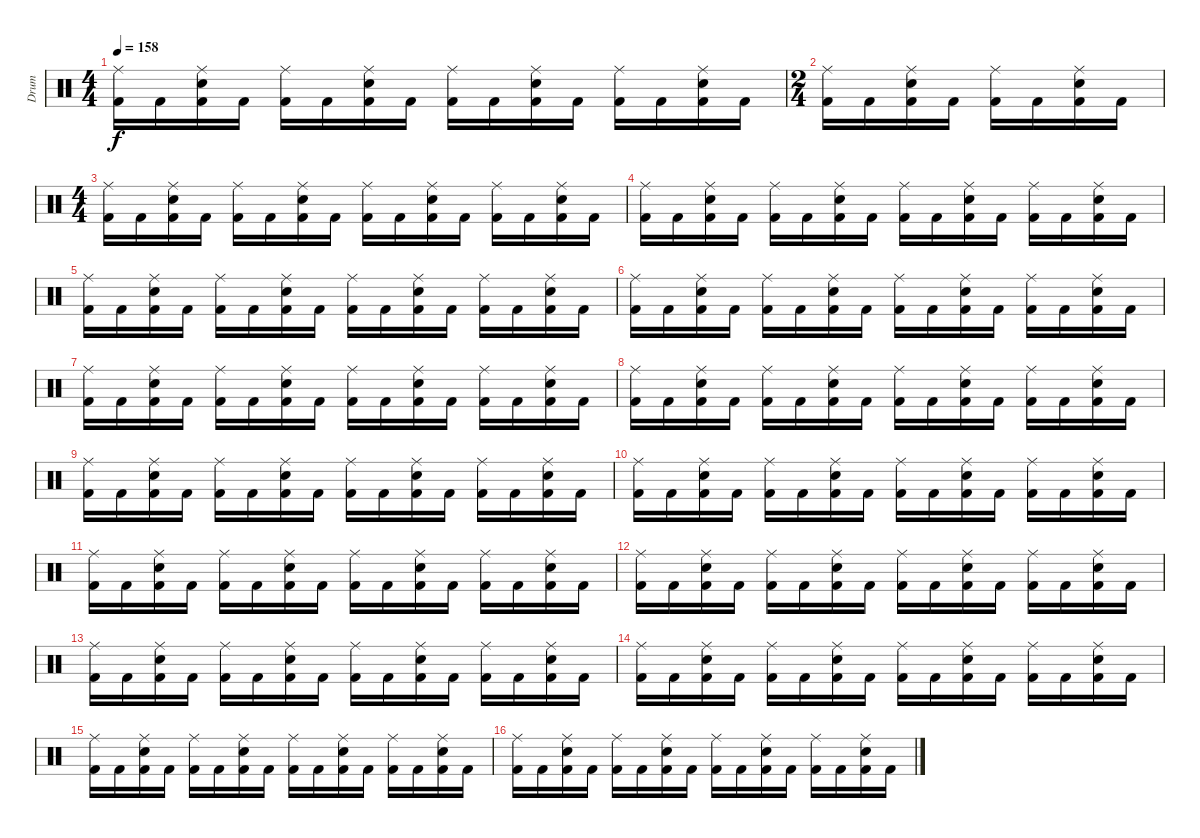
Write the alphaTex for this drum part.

\track ("Drum" "Drum") {instrument percussion}
\staff {score}
\articulation defaults
\ts (4 4)
\tempo 158
\clef neutral
\ks c
("Kick (hit) 2" "Ride (middle)").16{dy f} "Kick (hit) 2".16 ("Electric Snare (hit)" "Kick (hit) 2" "Ride (middle)").16 "Kick (hit) 2".16 ("Kick (hit) 2" "Ride (middle)").16 "Kick (hit) 2".16 ("Electric Snare (hit)" "Kick (hit) 2" "Ride (middle)").16 "Kick (hit) 2".16 ("Kick (hit) 2" "Ride (middle)").16 "Kick (hit) 2".16 ("Electric Snare (hit)" "Kick (hit) 2" "Ride (middle)").16 "Kick (hit) 2".16 ("Kick (hit) 2" "Ride (middle)").16 "Kick (hit) 2".16 ("Electric Snare (hit)" "Kick (hit) 2" "Ride (middle)").16 "Kick (hit) 2".16 |
\ts (2 4)
("Kick (hit) 2" "Ride (middle)").16 "Kick (hit) 2".16 ("Electric Snare (hit)" "Kick (hit) 2" "Ride (middle)").16 "Kick (hit) 2".16 ("Kick (hit) 2" "Ride (middle)").16 "Kick (hit) 2".16 ("Electric Snare (hit)" "Kick (hit) 2" "Ride (middle)").16 "Kick (hit) 2".16 |
\ts (4 4)
("Kick (hit) 2" "Ride (middle)").16 "Kick (hit) 2".16 ("Electric Snare (hit)" "Kick (hit) 2" "Ride (middle)").16 "Kick (hit) 2".16 ("Kick (hit) 2" "Ride (middle)").16 "Kick (hit) 2".16 ("Electric Snare (hit)" "Kick (hit) 2" "Ride (middle)").16 "Kick (hit) 2".16 ("Kick (hit) 2" "Ride (middle)").16 "Kick (hit) 2".16 ("Electric Snare (hit)" "Kick (hit) 2" "Ride (middle)").16 "Kick (hit) 2".16 ("Kick (hit) 2" "Ride (middle)").16 "Kick (hit) 2".16 ("Electric Snare (hit)" "Kick (hit) 2" "Ride (middle)").16 "Kick (hit) 2".16 |
("Kick (hit) 2" "Ride (middle)").16 "Kick (hit) 2".16 ("Electric Snare (hit)" "Kick (hit) 2" "Ride (middle)").16 "Kick (hit) 2".16 ("Kick (hit) 2" "Ride (middle)").16 "Kick (hit) 2".16 ("Electric Snare (hit)" "Kick (hit) 2" "Ride (middle)").16 "Kick (hit) 2".16 ("Kick (hit) 2" "Ride (middle)").16 "Kick (hit) 2".16 ("Electric Snare (hit)" "Kick (hit) 2" "Ride (middle)").16 "Kick (hit) 2".16 ("Kick (hit) 2" "Ride (middle)").16 "Kick (hit) 2".16 ("Electric Snare (hit)" "Kick (hit) 2" "Ride (middle)").16 "Kick (hit) 2".16 |
("Kick (hit) 2" "Ride (middle)").16 "Kick (hit) 2".16 ("Electric Snare (hit)" "Kick (hit) 2" "Ride (middle)").16 "Kick (hit) 2".16 ("Kick (hit) 2" "Ride (middle)").16 "Kick (hit) 2".16 ("Electric Snare (hit)" "Kick (hit) 2" "Ride (middle)").16 "Kick (hit) 2".16 ("Kick (hit) 2" "Ride (middle)").16 "Kick (hit) 2".16 ("Electric Snare (hit)" "Kick (hit) 2" "Ride (middle)").16 "Kick (hit) 2".16 ("Kick (hit) 2" "Ride (middle)").16 "Kick (hit) 2".16 ("Electric Snare (hit)" "Kick (hit) 2" "Ride (middle)").16 "Kick (hit) 2".16 |
("Kick (hit) 2" "Ride (middle)").16 "Kick (hit) 2".16 ("Electric Snare (hit)" "Kick (hit) 2" "Ride (middle)").16 "Kick (hit) 2".16 ("Kick (hit) 2" "Ride (middle)").16 "Kick (hit) 2".16 ("Electric Snare (hit)" "Kick (hit) 2" "Ride (middle)").16 "Kick (hit) 2".16 ("Kick (hit) 2" "Ride (middle)").16 "Kick (hit) 2".16 ("Electric Snare (hit)" "Kick (hit) 2" "Ride (middle)").16 "Kick (hit) 2".16 ("Kick (hit) 2" "Ride (middle)").16 "Kick (hit) 2".16 ("Electric Snare (hit)" "Kick (hit) 2" "Ride (middle)").16 "Kick (hit) 2".16 |
("Kick (hit) 2" "Ride (middle)").16 "Kick (hit) 2".16 ("Electric Snare (hit)" "Kick (hit) 2" "Ride (middle)").16 "Kick (hit) 2".16 ("Kick (hit) 2" "Ride (middle)").16 "Kick (hit) 2".16 ("Electric Snare (hit)" "Kick (hit) 2" "Ride (middle)").16 "Kick (hit) 2".16 ("Kick (hit) 2" "Ride (middle)").16 "Kick (hit) 2".16 ("Electric Snare (hit)" "Kick (hit) 2" "Ride (middle)").16 "Kick (hit) 2".16 ("Kick (hit) 2" "Ride (middle)").16 "Kick (hit) 2".16 ("Electric Snare (hit)" "Kick (hit) 2" "Ride (middle)").16 "Kick (hit) 2".16 |
("Kick (hit) 2" "Ride (middle)").16 "Kick (hit) 2".16 ("Electric Snare (hit)" "Kick (hit) 2" "Ride (middle)").16 "Kick (hit) 2".16 ("Kick (hit) 2" "Ride (middle)").16 "Kick (hit) 2".16 ("Electric Snare (hit)" "Kick (hit) 2" "Ride (middle)").16 "Kick (hit) 2".16 ("Kick (hit) 2" "Ride (middle)").16 "Kick (hit) 2".16 ("Electric Snare (hit)" "Kick (hit) 2" "Ride (middle)").16 "Kick (hit) 2".16 ("Kick (hit) 2" "Ride (middle)").16 "Kick (hit) 2".16 ("Electric Snare (hit)" "Kick (hit) 2" "Ride (middle)").16 "Kick (hit) 2".16 |
("Kick (hit) 2" "Ride (middle)").16 "Kick (hit) 2".16 ("Electric Snare (hit)" "Kick (hit) 2" "Ride (middle)").16 "Kick (hit) 2".16 ("Kick (hit) 2" "Ride (middle)").16 "Kick (hit) 2".16 ("Electric Snare (hit)" "Kick (hit) 2" "Ride (middle)").16 "Kick (hit) 2".16 ("Kick (hit) 2" "Ride (middle)").16 "Kick (hit) 2".16 ("Electric Snare (hit)" "Kick (hit) 2" "Ride (middle)").16 "Kick (hit) 2".16 ("Kick (hit) 2" "Ride (middle)").16 "Kick (hit) 2".16 ("Electric Snare (hit)" "Kick (hit) 2" "Ride (middle)").16 "Kick (hit) 2".16 |
("Kick (hit) 2" "Ride (middle)").16 "Kick (hit) 2".16 ("Electric Snare (hit)" "Kick (hit) 2" "Ride (middle)").16 "Kick (hit) 2".16 ("Kick (hit) 2" "Ride (middle)").16 "Kick (hit) 2".16 ("Electric Snare (hit)" "Kick (hit) 2" "Ride (middle)").16 "Kick (hit) 2".16 ("Kick (hit) 2" "Ride (middle)").16 "Kick (hit) 2".16 ("Electric Snare (hit)" "Kick (hit) 2" "Ride (middle)").16 "Kick (hit) 2".16 ("Kick (hit) 2" "Ride (middle)").16 "Kick (hit) 2".16 ("Electric Snare (hit)" "Kick (hit) 2" "Ride (middle)").16 "Kick (hit) 2".16 |
("Kick (hit) 2" "Ride (middle)").16 "Kick (hit) 2".16 ("Electric Snare (hit)" "Kick (hit) 2" "Ride (middle)").16 "Kick (hit) 2".16 ("Kick (hit) 2" "Ride (middle)").16 "Kick (hit) 2".16 ("Electric Snare (hit)" "Kick (hit) 2" "Ride (middle)").16 "Kick (hit) 2".16 ("Kick (hit) 2" "Ride (middle)").16 "Kick (hit) 2".16 ("Electric Snare (hit)" "Kick (hit) 2" "Ride (middle)").16 "Kick (hit) 2".16 ("Kick (hit) 2" "Ride (middle)").16 "Kick (hit) 2".16 ("Electric Snare (hit)" "Kick (hit) 2" "Ride (middle)").16 "Kick (hit) 2".16 |
("Kick (hit) 2" "Ride (middle)").16 "Kick (hit) 2".16 ("Electric Snare (hit)" "Kick (hit) 2" "Ride (middle)").16 "Kick (hit) 2".16 ("Kick (hit) 2" "Ride (middle)").16 "Kick (hit) 2".16 ("Electric Snare (hit)" "Kick (hit) 2" "Ride (middle)").16 "Kick (hit) 2".16 ("Kick (hit) 2" "Ride (middle)").16 "Kick (hit) 2".16 ("Electric Snare (hit)" "Kick (hit) 2" "Ride (middle)").16 "Kick (hit) 2".16 ("Kick (hit) 2" "Ride (middle)").16 "Kick (hit) 2".16 ("Electric Snare (hit)" "Kick (hit) 2" "Ride (middle)").16 "Kick (hit) 2".16 |
("Kick (hit) 2" "Ride (middle)").16 "Kick (hit) 2".16 ("Electric Snare (hit)" "Kick (hit) 2" "Ride (middle)").16 "Kick (hit) 2".16 ("Kick (hit) 2" "Ride (middle)").16 "Kick (hit) 2".16 ("Electric Snare (hit)" "Kick (hit) 2" "Ride (middle)").16 "Kick (hit) 2".16 ("Kick (hit) 2" "Ride (middle)").16 "Kick (hit) 2".16 ("Electric Snare (hit)" "Kick (hit) 2" "Ride (middle)").16 "Kick (hit) 2".16 ("Kick (hit) 2" "Ride (middle)").16 "Kick (hit) 2".16 ("Electric Snare (hit)" "Kick (hit) 2" "Ride (middle)").16 "Kick (hit) 2".16 |
("Kick (hit) 2" "Ride (middle)").16 "Kick (hit) 2".16 ("Electric Snare (hit)" "Kick (hit) 2" "Ride (middle)").16 "Kick (hit) 2".16 ("Kick (hit) 2" "Ride (middle)").16 "Kick (hit) 2".16 ("Electric Snare (hit)" "Kick (hit) 2" "Ride (middle)").16 "Kick (hit) 2".16 ("Kick (hit) 2" "Ride (middle)").16 "Kick (hit) 2".16 ("Electric Snare (hit)" "Kick (hit) 2" "Ride (middle)").16 "Kick (hit) 2".16 ("Kick (hit) 2" "Ride (middle)").16 "Kick (hit) 2".16 ("Electric Snare (hit)" "Kick (hit) 2" "Ride (middle)").16 "Kick (hit) 2".16 |
("Kick (hit) 2" "Ride (middle)").16 "Kick (hit) 2".16 ("Electric Snare (hit)" "Kick (hit) 2" "Ride (middle)").16 "Kick (hit) 2".16 ("Kick (hit) 2" "Ride (middle)").16 "Kick (hit) 2".16 ("Electric Snare (hit)" "Kick (hit) 2" "Ride (middle)").16 "Kick (hit) 2".16 ("Kick (hit) 2" "Ride (middle)").16 "Kick (hit) 2".16 ("Electric Snare (hit)" "Kick (hit) 2" "Ride (middle)").16 "Kick (hit) 2".16 ("Kick (hit) 2" "Ride (middle)").16 "Kick (hit) 2".16 ("Electric Snare (hit)" "Kick (hit) 2" "Ride (middle)").16 "Kick (hit) 2".16 |
("Kick (hit) 2" "Ride (middle)").16 "Kick (hit) 2".16 ("Electric Snare (hit)" "Kick (hit) 2" "Ride (middle)").16 "Kick (hit) 2".16 ("Kick (hit) 2" "Ride (middle)").16 "Kick (hit) 2".16 ("Electric Snare (hit)" "Kick (hit) 2" "Ride (middle)").16 "Kick (hit) 2".16 ("Kick (hit) 2" "Ride (middle)").16 "Kick (hit) 2".16 ("Electric Snare (hit)" "Kick (hit) 2" "Ride (middle)").16 "Kick (hit) 2".16 ("Kick (hit) 2" "Ride (middle)").16 "Kick (hit) 2".16 ("Electric Snare (hit)" "Kick (hit) 2" "Ride (middle)").16 "Kick (hit) 2".16
